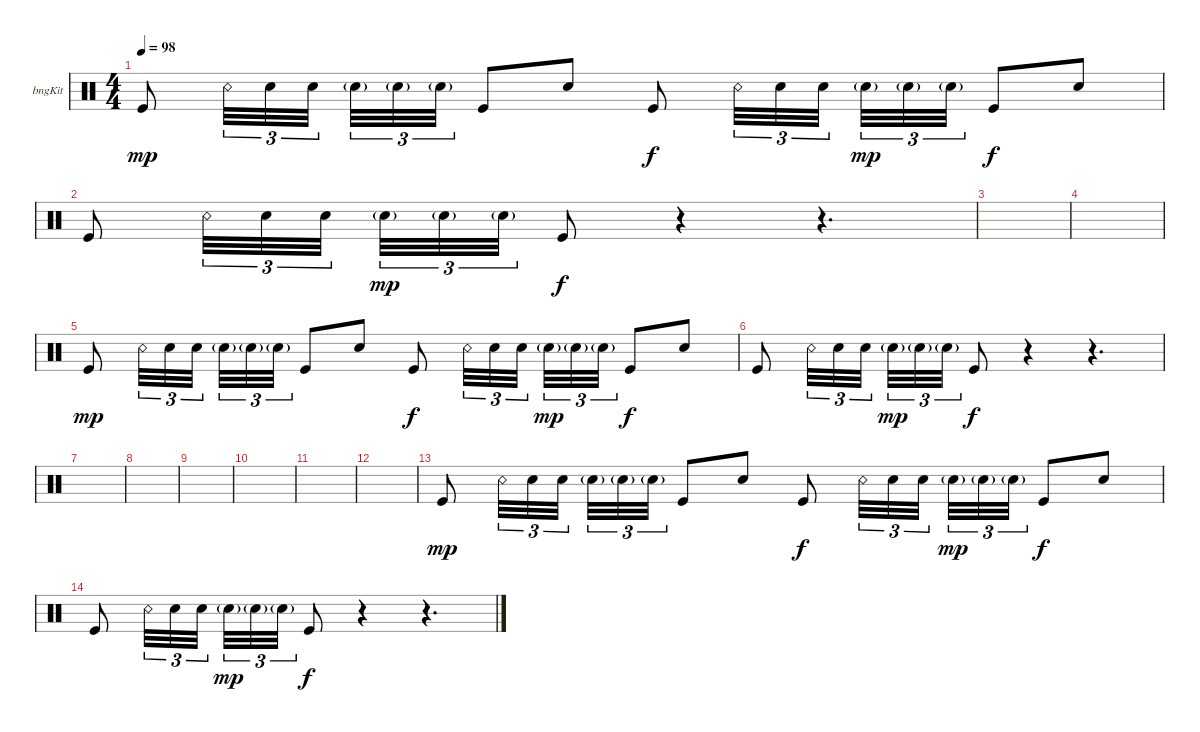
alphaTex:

\defaultSystemsLayout 4
\bracketExtendMode groupsimilarinstruments
\firstSystemTrackNameOrientation horizontal
\otherSystemsTrackNameOrientation horizontal
\track ("Bongos" "bngKit") {instrument percussion}
\staff {score}
\articulation defaults
\ts (4 4)
\tempo 98
\clef neutral
\ks c "Kick (hit)".8{dy mp} "Snare (rim shot)".32{tu (3 2)} "Snare (hit) 2".32{tu (3 2)} "Snare (hit) 2".32{tu (3 2)} "Snare (hit) 2"{g}.32{tu (3 2)} "Snare (hit) 2"{g}.32{tu (3 2)} "Snare (hit) 2"{g}.32{tu (3 2)} "Kick (hit)".8 "Snare (hit) 2".8 "Kick (hit)".8{dy f} "Snare (rim shot)".32{tu (3 2)} "Snare (hit) 2".32{tu (3 2)} "Snare (hit) 2".32{tu (3 2)} "Snare (hit) 2"{g}.32{tu (3 2) dy mp} "Snare (hit) 2"{g}.32{tu (3 2)} "Snare (hit) 2"{g}.32{tu (3 2)} "Kick (hit)".8{dy f} "Snare (hit) 2".8
|
"Kick (hit)".8 "Snare (rim shot)".32{tu (3 2)} "Snare (hit) 2".32{tu (3 2)} "Snare (hit) 2".32{tu (3 2)} "Snare (hit) 2"{g}.32{tu (3 2) dy mp} "Snare (hit) 2"{g}.32{tu (3 2)} "Snare (hit) 2"{g}.32{tu (3 2)} "Kick (hit)".8{dy f} r.4 r.4{d} |
|
|
"Kick (hit)".8{dy mp} "Snare (rim shot)".32{tu (3 2)} "Snare (hit) 2".32{tu (3 2)} "Snare (hit) 2".32{tu (3 2)} "Snare (hit) 2"{g}.32{tu (3 2)} "Snare (hit) 2"{g}.32{tu (3 2)} "Snare (hit) 2"{g}.32{tu (3 2)} "Kick (hit)".8 "Snare (hit) 2".8 "Kick (hit)".8{dy f} "Snare (rim shot)".32{tu (3 2)} "Snare (hit) 2".32{tu (3 2)} "Snare (hit) 2".32{tu (3 2)} "Snare (hit) 2"{g}.32{tu (3 2) dy mp} "Snare (hit) 2"{g}.32{tu (3 2)} "Snare (hit) 2"{g}.32{tu (3 2)} "Kick (hit)".8{dy f} "Snare (hit) 2".8 |
"Kick (hit)".8 "Snare (rim shot)".32{tu (3 2)} "Snare (hit) 2".32{tu (3 2)} "Snare (hit) 2".32{tu (3 2)} "Snare (hit) 2"{g}.32{tu (3 2) dy mp} "Snare (hit) 2"{g}.32{tu (3 2)} "Snare (hit) 2"{g}.32{tu (3 2)} "Kick (hit)".8{dy f} r.4 r.4{d} |
|
|
|
|
|
|
"Kick (hit)".8{dy mp} "Snare (rim shot)".32{tu (3 2)} "Snare (hit) 2".32{tu (3 2)} "Snare (hit) 2".32{tu (3 2)} "Snare (hit) 2"{g}.32{tu (3 2)} "Snare (hit) 2"{g}.32{tu (3 2)} "Snare (hit) 2"{g}.32{tu (3 2)} "Kick (hit)".8 "Snare (hit) 2".8 "Kick (hit)".8{dy f} "Snare (rim shot)".32{tu (3 2)} "Snare (hit) 2".32{tu (3 2)} "Snare (hit) 2".32{tu (3 2)} "Snare (hit) 2"{g}.32{tu (3 2) dy mp} "Snare (hit) 2"{g}.32{tu (3 2)} "Snare (hit) 2"{g}.32{tu (3 2)} "Kick (hit)".8{dy f} "Snare (hit) 2".8 |
"Kick (hit)".8 "Snare (rim shot)".32{tu (3 2)} "Snare (hit) 2".32{tu (3 2)} "Snare (hit) 2".32{tu (3 2)} "Snare (hit) 2"{g}.32{tu (3 2) dy mp} "Snare (hit) 2"{g}.32{tu (3 2)} "Snare (hit) 2"{g}.32{tu (3 2)} "Kick (hit)".8{dy f} r.4 r.4{d}
